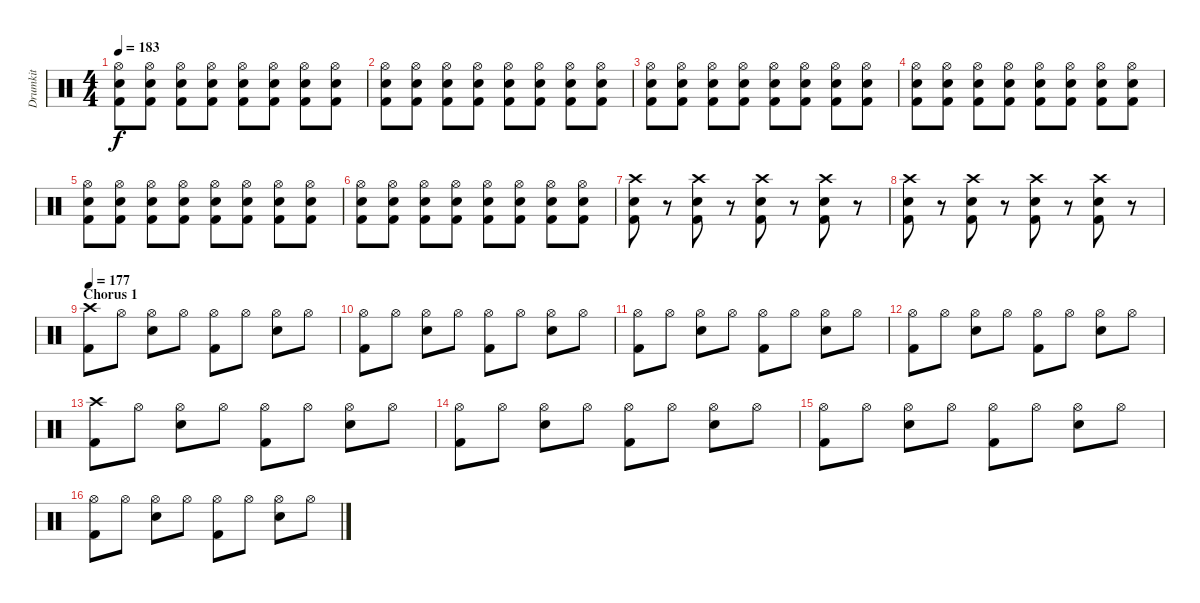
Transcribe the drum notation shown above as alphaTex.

\track ("Drumkit" "Drumkit") {instrument percussion}
\staff {score}
\articulation defaults
\ts (4 4)
\tempo 183
\clef neutral
\ks c
("Kick (hit) 2" "Snare (hit) 2" "Hi-Hat (open)").8{dy f} ("Snare (hit) 2" "Kick (hit) 2" "Hi-Hat (open)").8 ("Kick (hit) 2" "Snare (hit) 2" "Hi-Hat (open)").8 ("Snare (hit) 2" "Kick (hit) 2" "Hi-Hat (open)").8 ("Kick (hit) 2" "Snare (hit) 2" "Hi-Hat (open)").8 ("Snare (hit) 2" "Kick (hit) 2" "Hi-Hat (open)").8 ("Kick (hit) 2" "Snare (hit) 2" "Hi-Hat (open)").8 ("Snare (hit) 2" "Kick (hit) 2" "Hi-Hat (open)").8 |
("Kick (hit) 2" "Snare (hit) 2" "Hi-Hat (open)").8 ("Snare (hit) 2" "Kick (hit) 2" "Hi-Hat (open)").8 ("Kick (hit) 2" "Snare (hit) 2" "Hi-Hat (open)").8 ("Snare (hit) 2" "Kick (hit) 2" "Hi-Hat (open)").8 ("Kick (hit) 2" "Snare (hit) 2" "Hi-Hat (open)").8 ("Snare (hit) 2" "Kick (hit) 2" "Hi-Hat (open)").8 ("Kick (hit) 2" "Snare (hit) 2" "Hi-Hat (open)").8 ("Snare (hit) 2" "Kick (hit) 2" "Hi-Hat (open)").8 |
("Kick (hit) 2" "Snare (hit) 2" "Hi-Hat (open)").8 ("Snare (hit) 2" "Kick (hit) 2" "Hi-Hat (open)").8 ("Kick (hit) 2" "Snare (hit) 2" "Hi-Hat (open)").8 ("Snare (hit) 2" "Kick (hit) 2" "Hi-Hat (open)").8 ("Kick (hit) 2" "Snare (hit) 2" "Hi-Hat (open)").8 ("Snare (hit) 2" "Kick (hit) 2" "Hi-Hat (open)").8 ("Kick (hit) 2" "Snare (hit) 2" "Hi-Hat (open)").8 ("Snare (hit) 2" "Kick (hit) 2" "Hi-Hat (open)").8 |
("Kick (hit) 2" "Snare (hit) 2" "Hi-Hat (open)").8 ("Snare (hit) 2" "Kick (hit) 2" "Hi-Hat (open)").8 ("Kick (hit) 2" "Snare (hit) 2" "Hi-Hat (open)").8 ("Snare (hit) 2" "Kick (hit) 2" "Hi-Hat (open)").8 ("Kick (hit) 2" "Snare (hit) 2" "Hi-Hat (open)").8 ("Snare (hit) 2" "Kick (hit) 2" "Hi-Hat (open)").8 ("Kick (hit) 2" "Snare (hit) 2" "Hi-Hat (open)").8 ("Snare (hit) 2" "Kick (hit) 2" "Hi-Hat (open)").8 |
("Kick (hit) 2" "Snare (hit) 2" "Hi-Hat (open)").8 ("Snare (hit) 2" "Kick (hit) 2" "Hi-Hat (open)").8 ("Kick (hit) 2" "Snare (hit) 2" "Hi-Hat (open)").8 ("Snare (hit) 2" "Kick (hit) 2" "Hi-Hat (open)").8 ("Kick (hit) 2" "Snare (hit) 2" "Hi-Hat (open)").8 ("Snare (hit) 2" "Kick (hit) 2" "Hi-Hat (open)").8 ("Kick (hit) 2" "Snare (hit) 2" "Hi-Hat (open)").8 ("Snare (hit) 2" "Kick (hit) 2" "Hi-Hat (open)").8 |
("Kick (hit) 2" "Snare (hit) 2" "Hi-Hat (open)").8 ("Snare (hit) 2" "Kick (hit) 2" "Hi-Hat (open)").8 ("Kick (hit) 2" "Snare (hit) 2" "Hi-Hat (open)").8 ("Snare (hit) 2" "Kick (hit) 2" "Hi-Hat (open)").8 ("Kick (hit) 2" "Snare (hit) 2" "Hi-Hat (open)").8 ("Snare (hit) 2" "Kick (hit) 2" "Hi-Hat (open)").8 ("Kick (hit) 2" "Snare (hit) 2" "Hi-Hat (open)").8 ("Snare (hit) 2" "Kick (hit) 2" "Hi-Hat (open)").8 |
("Snare (hit) 2" "Kick (hit) 2" "Crash high (hit)").8 r.8 ("Snare (hit) 2" "Kick (hit) 2" "Crash high (hit)").8 r.8 ("Snare (hit) 2" "Kick (hit) 2" "Crash high (hit)").8 r.8 ("Snare (hit) 2" "Kick (hit) 2" "Crash high (hit)").8 r.8 |
("Snare (hit) 2" "Kick (hit) 2" "Crash high (hit)").8 r.8 ("Snare (hit) 2" "Kick (hit) 2" "Crash high (hit)").8 r.8 ("Snare (hit) 2" "Kick (hit) 2" "Crash high (hit)").8 r.8 ("Snare (hit) 2" "Kick (hit) 2" "Crash high (hit)").8 r.8 |
\section ("" "Chorus 1")
\tempo 177
("Crash high (hit)" "Kick (hit) 2").8 "Hi-Hat (open)".8 ("Snare (hit) 2" "Hi-Hat (open)").8 "Hi-Hat (open)".8 ("Kick (hit) 2" "Hi-Hat (open)").8 "Hi-Hat (open)".8 ("Snare (hit) 2" "Hi-Hat (open)").8 "Hi-Hat (open)".8 |
("Kick (hit) 2" "Hi-Hat (open)").8 "Hi-Hat (open)".8 ("Snare (hit) 2" "Hi-Hat (open)").8 "Hi-Hat (open)".8 ("Kick (hit) 2" "Hi-Hat (open)").8 "Hi-Hat (open)".8 ("Snare (hit) 2" "Hi-Hat (open)").8 "Hi-Hat (open)".8 |
("Kick (hit) 2" "Hi-Hat (open)").8 "Hi-Hat (open)".8 ("Snare (hit) 2" "Hi-Hat (open)").8 "Hi-Hat (open)".8 ("Kick (hit) 2" "Hi-Hat (open)").8 "Hi-Hat (open)".8 ("Snare (hit) 2" "Hi-Hat (open)").8 "Hi-Hat (open)".8 |
("Kick (hit) 2" "Hi-Hat (open)").8 "Hi-Hat (open)".8 ("Snare (hit) 2" "Hi-Hat (open)").8 "Hi-Hat (open)".8 ("Kick (hit) 2" "Hi-Hat (open)").8 "Hi-Hat (open)".8 ("Snare (hit) 2" "Hi-Hat (open)").8 "Hi-Hat (open)".8 |
("Crash high (hit)" "Kick (hit) 2").8 "Hi-Hat (open)".8 ("Snare (hit) 2" "Hi-Hat (open)").8 "Hi-Hat (open)".8 ("Kick (hit) 2" "Hi-Hat (open)").8 "Hi-Hat (open)".8 ("Snare (hit) 2" "Hi-Hat (open)").8 "Hi-Hat (open)".8 |
("Kick (hit) 2" "Hi-Hat (open)").8 "Hi-Hat (open)".8 ("Snare (hit) 2" "Hi-Hat (open)").8 "Hi-Hat (open)".8 ("Kick (hit) 2" "Hi-Hat (open)").8 "Hi-Hat (open)".8 ("Snare (hit) 2" "Hi-Hat (open)").8 "Hi-Hat (open)".8 |
("Kick (hit) 2" "Hi-Hat (open)").8 "Hi-Hat (open)".8 ("Snare (hit) 2" "Hi-Hat (open)").8 "Hi-Hat (open)".8 ("Kick (hit) 2" "Hi-Hat (open)").8 "Hi-Hat (open)".8 ("Snare (hit) 2" "Hi-Hat (open)").8 "Hi-Hat (open)".8 |
("Kick (hit) 2" "Hi-Hat (open)").8 "Hi-Hat (open)".8 ("Snare (hit) 2" "Hi-Hat (open)").8 "Hi-Hat (open)".8 ("Kick (hit) 2" "Hi-Hat (open)").8 "Hi-Hat (open)".8 ("Snare (hit) 2" "Hi-Hat (open)").8 "Hi-Hat (open)".8
